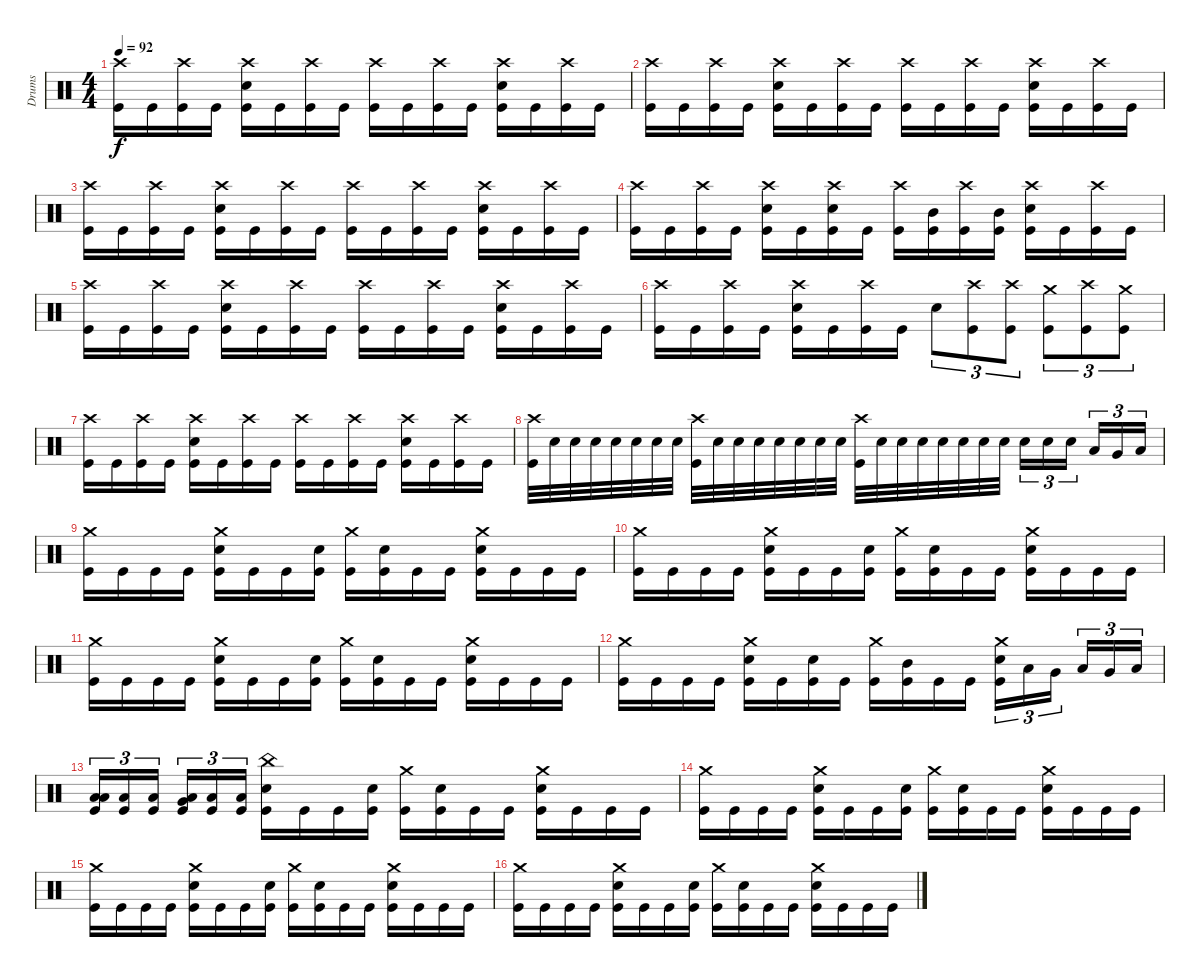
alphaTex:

\track ("Drums" "Drums") {instrument percussion}
\staff {score}
\articulation defaults
\ts (4 4)
\tempo 92
\clef neutral
\ks c
("Crash high (hit)" "Kick (hit)").16{dy f} "Kick (hit)".16 ("Crash high (hit)" "Kick (hit)").16 "Kick (hit)".16 ("Crash high (hit)" "Snare (hit) 2" "Kick (hit)").16 "Kick (hit)".16 ("Crash high (hit)" "Kick (hit)").16 "Kick (hit)".16 ("Crash high (hit)" "Kick (hit)").16 "Kick (hit)".16 ("Crash high (hit)" "Kick (hit)").16 "Kick (hit)".16 ("Crash high (hit)" "Snare (hit) 2" "Kick (hit)").16 "Kick (hit)".16 ("Crash high (hit)" "Kick (hit)").16 "Kick (hit)".16 |
("Crash high (hit)" "Kick (hit)").16 "Kick (hit)".16 ("Crash high (hit)" "Kick (hit)").16 "Kick (hit)".16 ("Crash high (hit)" "Snare (hit) 2" "Kick (hit)").16 "Kick (hit)".16 ("Crash high (hit)" "Kick (hit)").16 "Kick (hit)".16 ("Crash high (hit)" "Kick (hit)").16 "Kick (hit)".16 ("Crash high (hit)" "Kick (hit)").16 "Kick (hit)".16 ("Crash high (hit)" "Snare (hit) 2" "Kick (hit)").16 "Kick (hit)".16 ("Crash high (hit)" "Kick (hit)").16 "Kick (hit)".16 |
("Crash high (hit)" "Kick (hit)").16 "Kick (hit)".16 ("Crash high (hit)" "Kick (hit)").16 "Kick (hit)".16 ("Crash high (hit)" "Snare (hit) 2" "Kick (hit)").16 "Kick (hit)".16 ("Crash high (hit)" "Kick (hit)").16 "Kick (hit)".16 ("Crash high (hit)" "Kick (hit)").16 "Kick (hit)".16 ("Crash high (hit)" "Kick (hit)").16 "Kick (hit)".16 ("Crash high (hit)" "Snare (hit) 2" "Kick (hit)").16 "Kick (hit)".16 ("Crash high (hit)" "Kick (hit)").16 "Kick (hit)".16 |
("Crash high (hit)" "Kick (hit)").16 "Kick (hit)".16 ("Crash high (hit)" "Kick (hit)").16 "Kick (hit)".16 ("Crash high (hit)" "Snare (hit) 2" "Kick (hit)").16 "Kick (hit)".16 ("Crash high (hit)" "Snare (hit) 2" "Kick (hit)").16 "Kick (hit)".16 ("Crash high (hit)" "Kick (hit)").16 ("Mid Tom (hit)" "Kick (hit)").16 ("Crash high (hit)" "Kick (hit)").16 ("Mid Tom (hit)" "Kick (hit)").16 ("Crash high (hit)" "Snare (hit) 2" "Kick (hit)").16 "Kick (hit)".16 ("Crash high (hit)" "Kick (hit)").16 "Kick (hit)".16 |
("Crash high (hit)" "Kick (hit)").16 "Kick (hit)".16 ("Crash high (hit)" "Kick (hit)").16 "Kick (hit)".16 ("Crash high (hit)" "Snare (hit) 2" "Kick (hit)").16 "Kick (hit)".16 ("Crash high (hit)" "Kick (hit)").16 "Kick (hit)".16 ("Crash high (hit)" "Kick (hit)").16 "Kick (hit)".16 ("Crash high (hit)" "Kick (hit)").16 "Kick (hit)".16 ("Crash high (hit)" "Snare (hit) 2" "Kick (hit)").16 "Kick (hit)".16 ("Crash high (hit)" "Kick (hit)").16 "Kick (hit)".16 |
("Crash high (hit)" "Kick (hit)").16 "Kick (hit)".16 ("Crash high (hit)" "Kick (hit)").16 "Kick (hit)".16 ("Crash high (hit)" "Snare (hit) 2" "Kick (hit)").16 "Kick (hit)".16 ("Crash high (hit)" "Kick (hit)").16 "Kick (hit)".16 "Snare (hit) 2".8{tu (3 2)} ("Crash high (hit)" "Kick (hit)").8{tu (3 2)} ("Crash high (hit)" "Kick (hit)").8{tu (3 2)} ("Crash medium (hit)" "Kick (hit)").8{tu (3 2)} ("Crash high (hit)" "Kick (hit)").8{tu (3 2)} ("Crash medium (hit)" "Kick (hit)").8{tu (3 2)} |
("Crash high (hit)" "Kick (hit)").16 "Kick (hit)".16 ("Crash high (hit)" "Kick (hit)").16 "Kick (hit)".16 ("Crash high (hit)" "Snare (hit) 2" "Kick (hit)").16 "Kick (hit)".16 ("Crash high (hit)" "Kick (hit)").16 "Kick (hit)".16 ("Crash high (hit)" "Kick (hit)").16 "Kick (hit)".16 ("Crash high (hit)" "Kick (hit)").16 "Kick (hit)".16 ("Crash high (hit)" "Snare (hit) 2" "Kick (hit)").16 "Kick (hit)".16 ("Crash high (hit)" "Kick (hit)").16 "Kick (hit)".16 |
("Crash high (hit)" "Kick (hit)").32 "Snare (hit) 2".32 "Snare (hit) 2".32 "Snare (hit) 2".32 "Snare (hit) 2".32 "Snare (hit) 2".32 "Snare (hit) 2".32 "Snare (hit) 2".32 ("Crash high (hit)" "Kick (hit)").32 "Snare (hit) 2".32 "Snare (hit) 2".32 "Snare (hit) 2".32 "Snare (hit) 2".32 "Snare (hit) 2".32 "Snare (hit) 2".32 "Snare (hit) 2".32 ("Crash high (hit)" "Kick (hit)").32 "Snare (hit) 2".32 "Snare (hit) 2".32 "Snare (hit) 2".32 "Snare (hit) 2".32 "Snare (hit) 2".32 "Snare (hit) 2".32 "Snare (hit) 2".32 "Snare (hit) 2".16{tu (3 2)} "Snare (hit) 2".16{tu (3 2)} "Snare (hit) 2".16{tu (3 2)} "Low Tom (hit)".16{tu (3 2)} "Very Low Tom (hit)".16{tu (3 2)} "Low Floor Tom (hit)".16{tu (3 2)} |
("Crash medium (hit)" "Kick (hit)").16 "Kick (hit)".16 "Kick (hit)".16 "Kick (hit)".16 ("Crash medium (hit)" "Snare (hit) 2" "Kick (hit)").16 "Kick (hit)".16 "Kick (hit)".16 ("Snare (hit) 2" "Kick (hit)").16 ("Crash medium (hit)" "Kick (hit)").16 ("Snare (hit) 2" "Kick (hit)").16 "Kick (hit)".16 "Kick (hit)".16 ("Crash medium (hit)" "Snare (hit) 2" "Kick (hit)").16 "Kick (hit)".16 "Kick (hit)".16 "Kick (hit)".16 |
("Crash medium (hit)" "Kick (hit)").16 "Kick (hit)".16 "Kick (hit)".16 "Kick (hit)".16 ("Crash medium (hit)" "Snare (hit) 2" "Kick (hit)").16 "Kick (hit)".16 "Kick (hit)".16 ("Snare (hit) 2" "Kick (hit)").16 ("Crash medium (hit)" "Kick (hit)").16 ("Snare (hit) 2" "Kick (hit)").16 "Kick (hit)".16 "Kick (hit)".16 ("Crash medium (hit)" "Snare (hit) 2" "Kick (hit)").16 "Kick (hit)".16 "Kick (hit)".16 "Kick (hit)".16 |
("Crash medium (hit)" "Kick (hit)").16 "Kick (hit)".16 "Kick (hit)".16 "Kick (hit)".16 ("Crash medium (hit)" "Snare (hit) 2" "Kick (hit)").16 "Kick (hit)".16 "Kick (hit)".16 ("Snare (hit) 2" "Kick (hit)").16 ("Crash medium (hit)" "Kick (hit)").16 ("Snare (hit) 2" "Kick (hit)").16 "Kick (hit)".16 "Kick (hit)".16 ("Crash medium (hit)" "Snare (hit) 2" "Kick (hit)").16 "Kick (hit)".16 "Kick (hit)".16 "Kick (hit)".16 |
("Crash medium (hit)" "Kick (hit)").16 "Kick (hit)".16 "Kick (hit)".16 "Kick (hit)".16 ("Crash medium (hit)" "Snare (hit) 2" "Kick (hit)").16 "Kick (hit)".16 ("Snare (hit) 2" "Kick (hit)").16 "Kick (hit)".16 ("Crash medium (hit)" "Kick (hit)").16 ("Mid Tom (hit)" "Kick (hit)").16 "Kick (hit)".16 "Kick (hit)".16 ("Crash medium (hit)" "Snare (hit) 2" "Kick (hit)").16{tu (3 2)} "Low Tom (hit)".16{tu (3 2)} "Very Low Tom (hit)".16{tu (3 2)} "Low Floor Tom (hit)".16{tu (3 2)} "Very Low Tom (hit)".16{tu (3 2)} "Low Floor Tom (hit)".16{tu (3 2)} |
("Low Tom (hit)" "Low Floor Tom (hit)" "Kick (hit)").16{tu (3 2)} ("Low Floor Tom (hit)" "Kick (hit)").16{tu (3 2)} ("Low Floor Tom (hit)" "Kick (hit)").16{tu (3 2)} ("Very Low Tom (hit)" "Low Floor Tom (hit)" "Kick (hit)").16{tu (3 2)} ("Low Floor Tom (hit)" "Kick (hit)").16{tu (3 2)} ("Low Floor Tom (hit)" "Kick (hit)").16{tu (3 2)} ("China (hit)" "Snare (hit) 2" "Kick (hit)").16 "Kick (hit)".16 "Kick (hit)".16 ("Snare (hit) 2" "Kick (hit)").16 ("Crash medium (hit)" "Kick (hit)").16 ("Snare (hit) 2" "Kick (hit)").16 "Kick (hit)".16 "Kick (hit)".16 ("Crash medium (hit)" "Snare (hit) 2" "Kick (hit)").16 "Kick (hit)".16 "Kick (hit)".16 "Kick (hit)".16 |
("Crash medium (hit)" "Kick (hit)").16 "Kick (hit)".16 "Kick (hit)".16 "Kick (hit)".16 ("Crash medium (hit)" "Snare (hit) 2" "Kick (hit)").16 "Kick (hit)".16 "Kick (hit)".16 ("Snare (hit) 2" "Kick (hit)").16 ("Crash medium (hit)" "Kick (hit)").16 ("Snare (hit) 2" "Kick (hit)").16 "Kick (hit)".16 "Kick (hit)".16 ("Crash medium (hit)" "Snare (hit) 2" "Kick (hit)").16 "Kick (hit)".16 "Kick (hit)".16 "Kick (hit)".16 |
("Crash medium (hit)" "Kick (hit)").16 "Kick (hit)".16 "Kick (hit)".16 "Kick (hit)".16 ("Crash medium (hit)" "Snare (hit) 2" "Kick (hit)").16 "Kick (hit)".16 "Kick (hit)".16 ("Snare (hit) 2" "Kick (hit)").16 ("Crash medium (hit)" "Kick (hit)").16 ("Snare (hit) 2" "Kick (hit)").16 "Kick (hit)".16 "Kick (hit)".16 ("Crash medium (hit)" "Snare (hit) 2" "Kick (hit)").16 "Kick (hit)".16 "Kick (hit)".16 "Kick (hit)".16 |
("Crash medium (hit)" "Kick (hit)").16 "Kick (hit)".16 "Kick (hit)".16 "Kick (hit)".16 ("Crash medium (hit)" "Snare (hit) 2" "Kick (hit)").16 "Kick (hit)".16 "Kick (hit)".16 ("Snare (hit) 2" "Kick (hit)").16 ("Crash medium (hit)" "Kick (hit)").16 ("Snare (hit) 2" "Kick (hit)").16 "Kick (hit)".16 "Kick (hit)".16 ("Crash medium (hit)" "Snare (hit) 2" "Kick (hit)").16 "Kick (hit)".16 "Kick (hit)".16 "Kick (hit)".16
